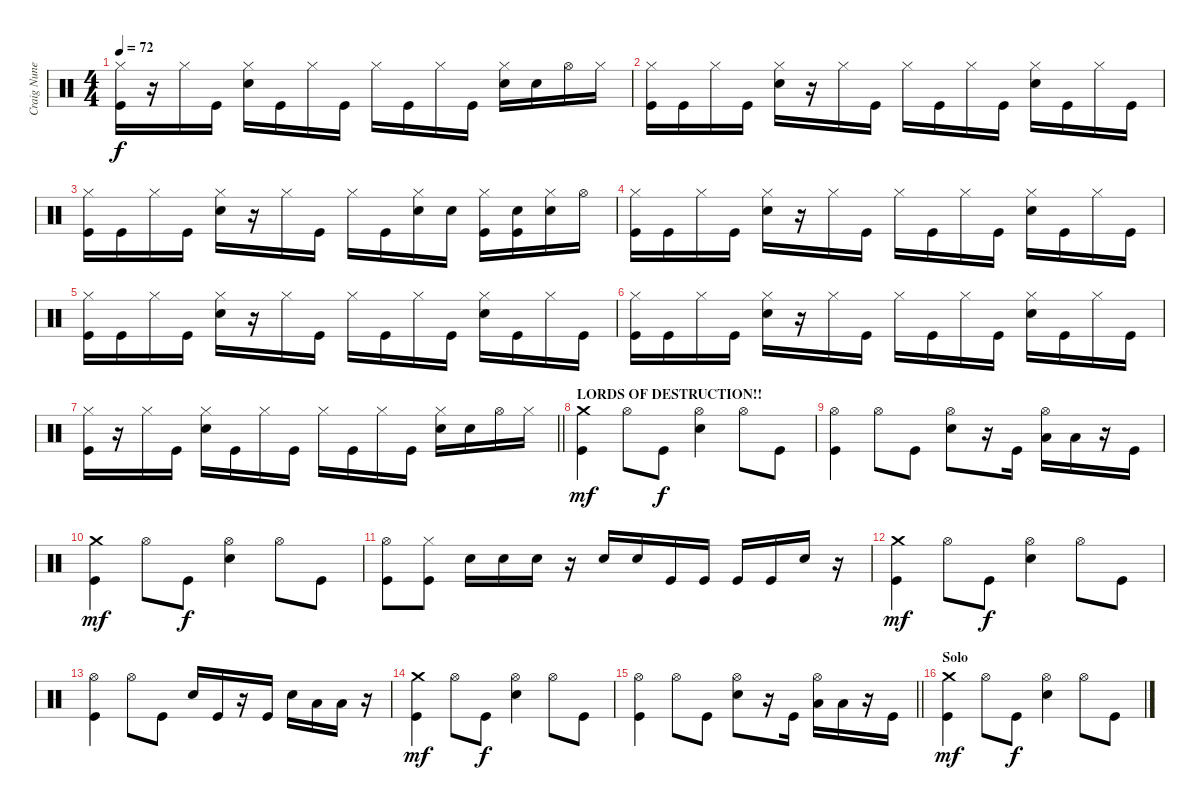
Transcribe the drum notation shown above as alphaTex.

\track ("Craig Nunenmacher" "Craig Nune") {instrument percussion}
\staff {score}
\articulation defaults
\ts (4 4)
\tempo 72
\clef neutral
\ks c
("Hi-Hat (closed)" "Kick (hit)").16{dy f} r.16 "Hi-Hat (closed)".16 "Kick (hit)".16 ("Snare (hit) 2" "Hi-Hat (closed)").16 "Kick (hit)".16 "Hi-Hat (closed)".16 "Kick (hit)".16 "Hi-Hat (closed)".16 "Kick (hit)".16 "Hi-Hat (closed)".16 "Kick (hit)".16 ("Snare (hit) 2" "Hi-Hat (closed)").16 "Snare (hit) 2".16 "Hi-Hat (open)".16 "Hi-Hat (closed)".16 |
("Hi-Hat (closed)" "Kick (hit)").16 "Kick (hit)".16 "Hi-Hat (closed)".16 "Kick (hit)".16 ("Snare (hit) 2" "Hi-Hat (closed)").16 r.16 "Hi-Hat (closed)".16 "Kick (hit)".16 "Hi-Hat (closed)".16 "Kick (hit)".16 "Hi-Hat (closed)".16 "Kick (hit)".16 ("Snare (hit) 2" "Hi-Hat (closed)").16 "Kick (hit)".16 "Hi-Hat (closed)".16 "Kick (hit)".16 |
("Hi-Hat (closed)" "Kick (hit)").16 "Kick (hit)".16 "Hi-Hat (closed)".16 "Kick (hit)".16 ("Snare (hit) 2" "Hi-Hat (closed)").16 r.16 "Hi-Hat (closed)".16 "Kick (hit)".16 "Hi-Hat (closed)".16 "Kick (hit)".16 ("Snare (hit) 2" "Hi-Hat (closed)").16 "Snare (hit) 2".16 ("Hi-Hat (closed)" "Kick (hit)").16 ("Snare (hit) 2" "Kick (hit)").16 ("Snare (hit) 2" "Hi-Hat (closed)").16 "Hi-Hat (open)".16 |
("Hi-Hat (closed)" "Kick (hit)").16 "Kick (hit)".16 "Hi-Hat (closed)".16 "Kick (hit)".16 ("Snare (hit) 2" "Hi-Hat (closed)").16 r.16 "Hi-Hat (closed)".16 "Kick (hit)".16 "Hi-Hat (closed)".16 "Kick (hit)".16 "Hi-Hat (closed)".16 "Kick (hit)".16 ("Snare (hit) 2" "Hi-Hat (closed)").16 "Kick (hit)".16 "Hi-Hat (closed)".16 "Kick (hit)".16 |
("Hi-Hat (closed)" "Kick (hit)").16 "Kick (hit)".16 "Hi-Hat (closed)".16 "Kick (hit)".16 ("Snare (hit) 2" "Hi-Hat (closed)").16 r.16 "Hi-Hat (closed)".16 "Kick (hit)".16 "Hi-Hat (closed)".16 "Kick (hit)".16 "Hi-Hat (closed)".16 "Kick (hit)".16 ("Snare (hit) 2" "Hi-Hat (closed)").16 "Kick (hit)".16 "Hi-Hat (closed)".16 "Kick (hit)".16 |
("Hi-Hat (closed)" "Kick (hit)").16 "Kick (hit)".16 "Hi-Hat (closed)".16 "Kick (hit)".16 ("Snare (hit) 2" "Hi-Hat (closed)").16 r.16 "Hi-Hat (closed)".16 "Kick (hit)".16 "Hi-Hat (closed)".16 "Kick (hit)".16 "Hi-Hat (closed)".16 "Kick (hit)".16 ("Snare (hit) 2" "Hi-Hat (closed)").16 "Kick (hit)".16 "Hi-Hat (closed)".16 "Kick (hit)".16 |
\barLineRight lightlight
("Hi-Hat (closed)" "Kick (hit)").16 r.16 "Hi-Hat (closed)".16 "Kick (hit)".16 ("Snare (hit) 2" "Hi-Hat (closed)").16 "Kick (hit)".16 "Hi-Hat (closed)".16 "Kick (hit)".16 "Hi-Hat (closed)".16 "Kick (hit)".16 "Hi-Hat (closed)".16 "Kick (hit)".16 ("Snare (hit) 2" "Hi-Hat (closed)").16 "Snare (hit) 2".16 "Hi-Hat (open)".16 "Hi-Hat (closed)".16 |
\section ("" "LORDS OF DESTRUCTION!!")
("Crash medium (hit)" "Kick (hit)").4{dy mf} "Hi-Hat (open)".8 "Kick (hit)".8{dy f} ("Snare (hit) 2" "Hi-Hat (open)").4 "Hi-Hat (open)".8 "Kick (hit)".8 |
("Hi-Hat (open)" "Kick (hit)").4 "Hi-Hat (open)".8 "Kick (hit)".8 ("Snare (hit) 2" "Hi-Hat (open)").8 r.16 "Kick (hit)".16 ("Low Tom (hit)" "Hi-Hat (open)").16 "Low Floor Tom (hit)".16 r.16 "Kick (hit)".16 |
("Crash medium (hit)" "Kick (hit)").4{dy mf} "Hi-Hat (open)".8 "Kick (hit)".8{dy f} ("Snare (hit) 2" "Hi-Hat (open)").4 "Hi-Hat (open)".8 "Kick (hit)".8 |
("Hi-Hat (open)" "Kick (hit)").8 ("Hi-Hat (closed)" "Kick (hit)").8 "Snare (hit) 2".16 "Snare (hit) 2".16 "Snare (hit) 2".16 r.16 "Snare (hit) 2".16 "Snare (hit) 2".16 "Kick (hit)".16 "Kick (hit)".16 "Kick (hit)".16 "Kick (hit)".16 "Snare (hit) 2".16 r.16 |
("Crash medium (hit)" "Kick (hit)").4{dy mf} "Hi-Hat (open)".8 "Kick (hit)".8{dy f} ("Snare (hit) 2" "Hi-Hat (open)").4 "Hi-Hat (open)".8 "Kick (hit)".8 |
("Hi-Hat (open)" "Kick (hit)").4 "Hi-Hat (open)".8 "Kick (hit)".8 "Snare (hit) 2".16 "Kick (hit)".16 r.16 "Kick (hit)".16 "Snare (hit) 2".16 "Low Tom (hit)".16 "Low Floor Tom (hit)".16 r.16 |
("Crash medium (hit)" "Kick (hit)").4{dy mf} "Hi-Hat (open)".8 "Kick (hit)".8{dy f} ("Snare (hit) 2" "Hi-Hat (open)").4 "Hi-Hat (open)".8 "Kick (hit)".8 |
\barLineRight lightlight
("Hi-Hat (open)" "Kick (hit)").4 "Hi-Hat (open)".8 "Kick (hit)".8 ("Snare (hit) 2" "Hi-Hat (open)").8 r.16 "Kick (hit)".16 ("Low Tom (hit)" "Hi-Hat (open)").16 "Low Floor Tom (hit)".16 r.16 "Kick (hit)".16 |
\section ("" "Solo")
("Crash medium (hit)" "Kick (hit)").4{dy mf} "Hi-Hat (open)".8 "Kick (hit)".8{dy f} ("Snare (hit) 2" "Hi-Hat (open)").4 "Hi-Hat (open)".8 "Kick (hit)".8
